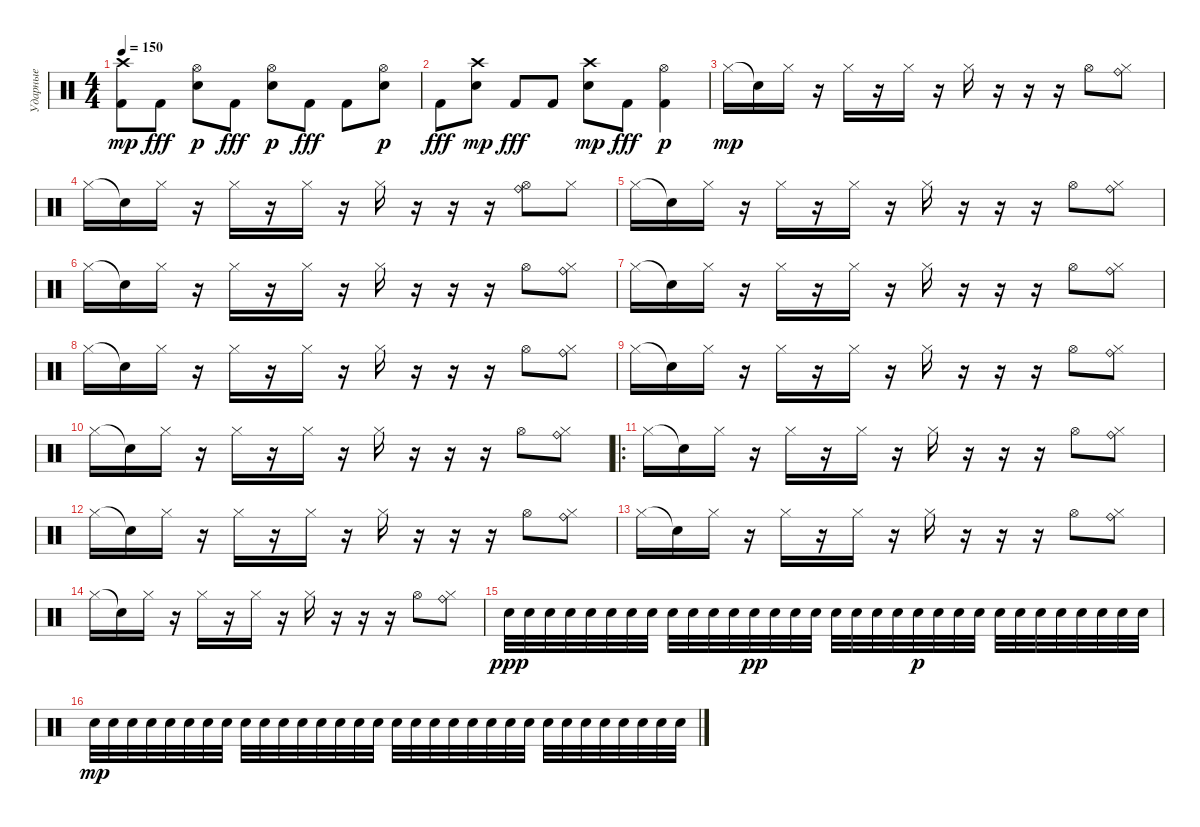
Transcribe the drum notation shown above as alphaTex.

\track ("Ударные" "Ударные") {instrument percussion}
\staff {score}
\articulation defaults
\ts (4 4)
\tempo 150
\clef neutral
\ks c
("Kick (hit) 2" "Crash high (hit)").8{dy mp} "Kick (hit) 2".8{dy fff} ("Snare (hit) 2" "Hi-Hat (open)").8{dy p} "Kick (hit) 2".8{dy fff} ("Snare (hit) 2" "Hi-Hat (open)").8{dy p} "Kick (hit) 2".8{dy fff} "Kick (hit) 2".8 ("Snare (hit) 2" "Hi-Hat (open)").8{dy p} |
"Kick (hit) 2".8{dy fff} ("Snare (hit) 2" "Crash high (hit)").8{dy mp} "Kick (hit) 2".8{dy fff} "Kick (hit) 2".8 ("Snare (hit) 2" "Crash high (hit)").8{dy mp} "Kick (hit) 2".8{dy fff} ("Kick (hit) 2" "Hi-Hat (open)").4{dy p} |
"Hi-Hat (closed)".16{dy mp} "Snare (hit)"{t}.16 "Hi-Hat (closed)".16 r.16 "Hi-Hat (closed)".16 r.16 "Hi-Hat (closed)".16 r.16 "Hi-Hat (closed)".16 r.16 r.16 r.16 "Hi-Hat (open)".8 ("Ride (bell)" "Hi-Hat (closed)").8 |
"Hi-Hat (closed)".16 "Snare (hit)"{t}.16 "Hi-Hat (closed)".16 r.16 "Hi-Hat (closed)".16 r.16 "Hi-Hat (closed)".16 r.16 "Hi-Hat (closed)".16 r.16 r.16 r.16 ("Ride (bell)" "Hi-Hat (open)").8 "Hi-Hat (closed)".8 |
"Hi-Hat (closed)".16 "Snare (hit)"{t}.16 "Hi-Hat (closed)".16 r.16 "Hi-Hat (closed)".16 r.16 "Hi-Hat (closed)".16 r.16 "Hi-Hat (closed)".16 r.16 r.16 r.16 "Hi-Hat (open)".8 ("Ride (bell)" "Hi-Hat (closed)").8 |
"Hi-Hat (closed)".16 "Snare (hit)"{t}.16 "Hi-Hat (closed)".16 r.16 "Hi-Hat (closed)".16 r.16 "Hi-Hat (closed)".16 r.16 "Hi-Hat (closed)".16 r.16 r.16 r.16 "Hi-Hat (open)".8 ("Ride (bell)" "Hi-Hat (closed)").8 |
"Hi-Hat (closed)".16 "Snare (hit)"{t}.16 "Hi-Hat (closed)".16 r.16 "Hi-Hat (closed)".16 r.16 "Hi-Hat (closed)".16 r.16 "Hi-Hat (closed)".16 r.16 r.16 r.16 "Hi-Hat (open)".8 ("Ride (bell)" "Hi-Hat (closed)").8 |
"Hi-Hat (closed)".16 "Snare (hit)"{t}.16 "Hi-Hat (closed)".16 r.16 "Hi-Hat (closed)".16 r.16 "Hi-Hat (closed)".16 r.16 "Hi-Hat (closed)".16 r.16 r.16 r.16 "Hi-Hat (open)".8 ("Ride (bell)" "Hi-Hat (closed)").8 |
"Hi-Hat (closed)".16 "Snare (hit)"{t}.16 "Hi-Hat (closed)".16 r.16 "Hi-Hat (closed)".16 r.16 "Hi-Hat (closed)".16 r.16 "Hi-Hat (closed)".16 r.16 r.16 r.16 "Hi-Hat (open)".8 ("Ride (bell)" "Hi-Hat (closed)").8 |
"Hi-Hat (closed)".16 "Snare (hit)"{t}.16 "Hi-Hat (closed)".16 r.16 "Hi-Hat (closed)".16 r.16 "Hi-Hat (closed)".16 r.16 "Hi-Hat (closed)".16 r.16 r.16 r.16 "Hi-Hat (open)".8 ("Ride (bell)" "Hi-Hat (closed)").8 |
\ro "Hi-Hat (closed)".16 "Snare (hit)"{t}.16 "Hi-Hat (closed)".16
r.16 "Hi-Hat (closed)".16 r.16 "Hi-Hat (closed)".16 r.16 "Hi-Hat (closed)".16 r.16 r.16 r.16 "Hi-Hat (open)".8 ("Ride (bell)" "Hi-Hat (closed)").8 |
"Hi-Hat (closed)".16 "Snare (hit)"{t}.16 "Hi-Hat (closed)".16 r.16 "Hi-Hat (closed)".16 r.16 "Hi-Hat (closed)".16 r.16 "Hi-Hat (closed)".16 r.16 r.16 r.16 "Hi-Hat (open)".8 ("Ride (bell)" "Hi-Hat (closed)").8 |
"Hi-Hat (closed)".16 "Snare (hit)"{t}.16 "Hi-Hat (closed)".16 r.16 "Hi-Hat (closed)".16 r.16 "Hi-Hat (closed)".16 r.16 "Hi-Hat (closed)".16 r.16 r.16 r.16 "Hi-Hat (open)".8 ("Ride (bell)" "Hi-Hat (closed)").8 |
"Hi-Hat (closed)".16 "Snare (hit)"{t}.16 "Hi-Hat (closed)".16 r.16 "Hi-Hat (closed)".16 r.16 "Hi-Hat (closed)".16 r.16 "Hi-Hat (closed)".16 r.16 r.16 r.16 "Hi-Hat (open)".8 ("Ride (bell)" "Hi-Hat (closed)").8 |
"Electric Snare (hit)".32{dy ppp} "Electric Snare (hit)".32 "Electric Snare (hit)".32 "Electric Snare (hit)".32 "Electric Snare (hit)".32 "Electric Snare (hit)".32 "Electric Snare (hit)".32 "Electric Snare (hit)".32 "Electric Snare (hit)".32 "Electric Snare (hit)".32 "Electric Snare (hit)".32 "Electric Snare (hit)".32 "Electric Snare (hit)".32{dy pp} "Electric Snare (hit)".32 "Electric Snare (hit)".32 "Electric Snare (hit)".32 "Electric Snare (hit)".32 "Electric Snare (hit)".32 "Electric Snare (hit)".32 "Electric Snare (hit)".32 "Electric Snare (hit)".32{dy p} "Electric Snare (hit)".32 "Electric Snare (hit)".32 "Electric Snare (hit)".32 "Electric Snare (hit)".32 "Electric Snare (hit)".32 "Electric Snare (hit)".32 "Electric Snare (hit)".32 "Electric Snare (hit)".32 "Electric Snare (hit)".32 "Electric Snare (hit)".32 "Electric Snare (hit)".32 |
"Electric Snare (hit)".32{dy mp} "Electric Snare (hit)".32 "Electric Snare (hit)".32 "Electric Snare (hit)".32 "Electric Snare (hit)".32 "Electric Snare (hit)".32 "Electric Snare (hit)".32 "Electric Snare (hit)".32 "Electric Snare (hit)".32 "Electric Snare (hit)".32 "Electric Snare (hit)".32 "Electric Snare (hit)".32 "Electric Snare (hit)".32 "Electric Snare (hit)".32 "Electric Snare (hit)".32 "Electric Snare (hit)".32 "Electric Snare (hit)".32 "Electric Snare (hit)".32 "Electric Snare (hit)".32 "Electric Snare (hit)".32 "Electric Snare (hit)".32 "Electric Snare (hit)".32 "Electric Snare (hit)".32 "Electric Snare (hit)".32 "Electric Snare (hit)".32 "Electric Snare (hit)".32 "Electric Snare (hit)".32 "Electric Snare (hit)".32 "Electric Snare (hit)".32 "Electric Snare (hit)".32 "Electric Snare (hit)".32 "Electric Snare (hit)".32
